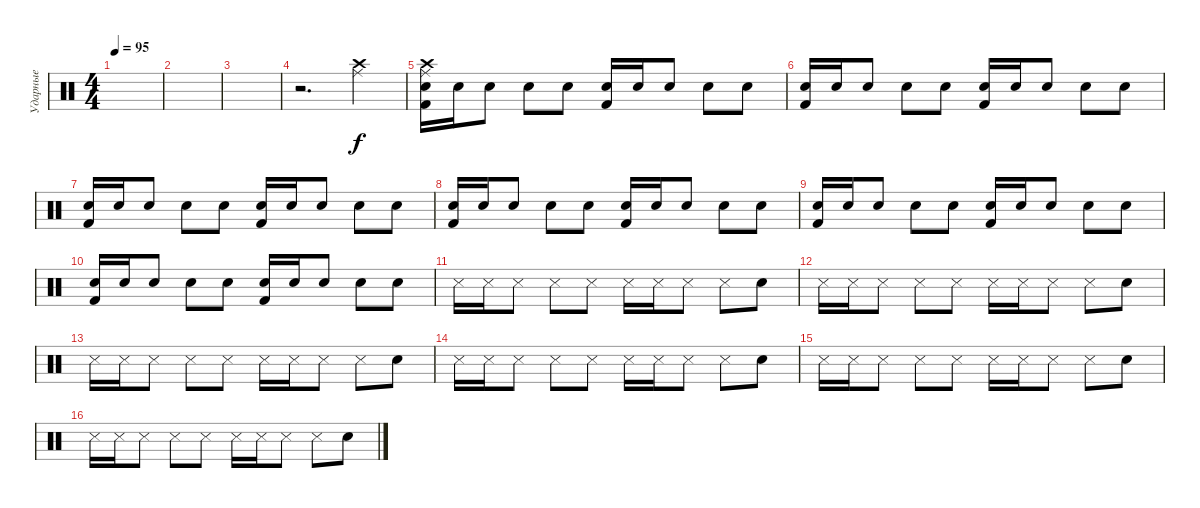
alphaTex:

\track ("Ударные" "Ударные") {instrument percussion}
\staff {score}
\articulation defaults
\ts (4 4)
\tempo 95
\clef neutral
\ks c
|
|
|
r.2{d} ("Ride (middle)" "Crash high (hit)").4 |
("Ride (middle)" "Snare (hit) 2" "Crash high (hit)" "Kick (hit) 2").16 "Snare (hit) 2".16 "Snare (hit) 2".8 "Snare (hit) 2".8 "Snare (hit) 2".8 ("Snare (hit) 2" "Kick (hit) 2").16 "Snare (hit) 2".16 "Snare (hit) 2".8 "Snare (hit) 2".8 "Snare (hit)"{x}.8 |
("Snare (hit) 2" "Kick (hit) 2").16 "Snare (hit) 2".16 "Snare (hit) 2".8 "Snare (hit) 2".8 "Snare (hit) 2".8 ("Snare (hit) 2" "Kick (hit) 2").16 "Snare (hit) 2".16 "Snare (hit) 2".8 "Snare (hit) 2".8 "Snare (hit)"{x}.8 |
("Snare (hit) 2" "Kick (hit) 2").16 "Snare (hit) 2".16 "Snare (hit) 2".8 "Snare (hit) 2".8 "Snare (hit) 2".8 ("Snare (hit) 2" "Kick (hit) 2").16 "Snare (hit) 2".16 "Snare (hit) 2".8 "Snare (hit) 2".8 "Snare (hit)"{x}.8 |
("Snare (hit) 2" "Kick (hit) 2").16 "Snare (hit) 2".16 "Snare (hit) 2".8 "Snare (hit) 2".8 "Snare (hit) 2".8 ("Snare (hit) 2" "Kick (hit) 2").16 "Snare (hit) 2".16 "Snare (hit) 2".8 "Snare (hit) 2".8 "Snare (hit)"{x}.8 |
("Snare (hit) 2" "Kick (hit) 2").16 "Snare (hit) 2".16 "Snare (hit) 2".8 "Snare (hit) 2".8 "Snare (hit) 2".8 ("Snare (hit) 2" "Kick (hit) 2").16 "Snare (hit) 2".16 "Snare (hit) 2".8 "Snare (hit) 2".8 "Snare (hit)"{x}.8 |
("Snare (hit) 2" "Kick (hit) 2").16 "Snare (hit) 2".16 "Snare (hit) 2".8 "Snare (hit) 2".8 "Snare (hit) 2".8 ("Snare (hit) 2" "Kick (hit) 2").16 "Snare (hit) 2".16 "Snare (hit) 2".8 "Snare (hit) 2".8 "Snare (hit)"{x}.8 |
"Metronome (hit)".16 "Metronome (hit)".16 "Metronome (hit)".8 "Metronome (hit)".8 "Metronome (hit)".8 "Metronome (hit)".16 "Metronome (hit)".16 "Metronome (hit)".8 "Metronome (hit)".8 "Snare (hit)"{x}.8 |
"Metronome (hit)".16 "Metronome (hit)".16 "Metronome (hit)".8 "Metronome (hit)".8 "Metronome (hit)".8 "Metronome (hit)".16 "Metronome (hit)".16 "Metronome (hit)".8 "Metronome (hit)".8 "Snare (hit)"{x}.8 |
"Metronome (hit)".16 "Metronome (hit)".16 "Metronome (hit)".8 "Metronome (hit)".8 "Metronome (hit)".8 "Metronome (hit)".16 "Metronome (hit)".16 "Metronome (hit)".8 "Metronome (hit)".8 "Snare (hit)"{x}.8 |
"Metronome (hit)".16 "Metronome (hit)".16 "Metronome (hit)".8 "Metronome (hit)".8 "Metronome (hit)".8 "Metronome (hit)".16 "Metronome (hit)".16 "Metronome (hit)".8 "Metronome (hit)".8 "Snare (hit)"{x}.8 |
"Metronome (hit)".16 "Metronome (hit)".16 "Metronome (hit)".8 "Metronome (hit)".8 "Metronome (hit)".8 "Metronome (hit)".16 "Metronome (hit)".16 "Metronome (hit)".8 "Metronome (hit)".8 "Snare (hit)"{x}.8 |
"Metronome (hit)".16 "Metronome (hit)".16 "Metronome (hit)".8 "Metronome (hit)".8 "Metronome (hit)".8 "Metronome (hit)".16 "Metronome (hit)".16 "Metronome (hit)".8 "Metronome (hit)".8 "Snare (hit)"{x}.8
